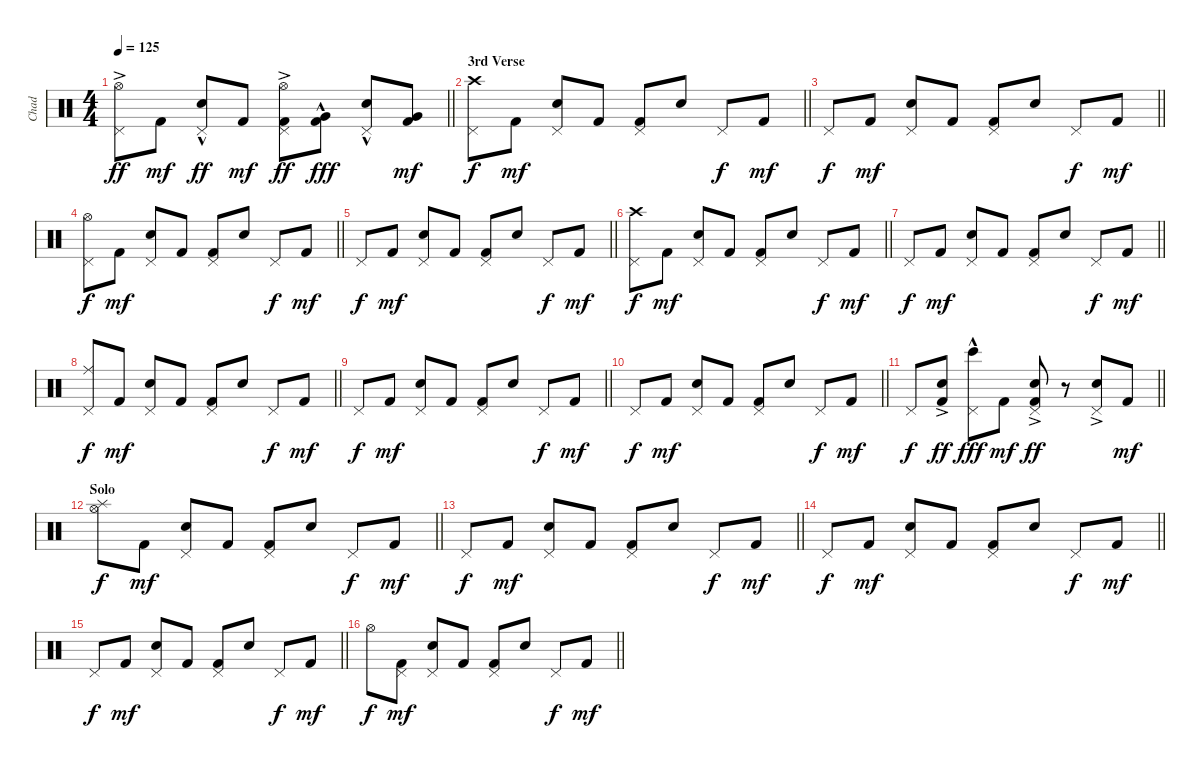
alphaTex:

\track ("Chad" "Chad") {instrument percussion}
\staff {score}
\articulation defaults
\ts (4 4)
\tempo 125
\clef neutral
\barLineRight lightlight
\ks c
("Hi-Hat (open)"{ac} "Pedal Hi-Hat (hit)").8{dy ff} "Kick (hit) 2".8{dy mf} ("Electric Snare (hit)"{hac} "Pedal Hi-Hat (hit)").8{dy ff} "Kick (hit) 2".8{dy mf} ("Kick (hit) 2"{ac} "Hi-Hat (open)"{ac} "Pedal Hi-Hat (hit)").8{dy ff} ("Kick (hit) 2"{hac} "Very Low Tom (hit)").8{dy fff} ("Electric Snare (hit)"{hac} "Pedal Hi-Hat (hit)").8 ("Very Low Tom (hit)" "Kick (hit) 2").8{dy mf} |
\section ("" "3rd Verse")
\barLineRight lightlight
("Crash high (hit)" "Pedal Hi-Hat (hit)").8{dy f} "Kick (hit) 2".8{dy mf} ("Electric Snare (hit)" "Pedal Hi-Hat (hit)").8 "Kick (hit) 2".8 ("Kick (hit) 2" "Pedal Hi-Hat (hit)").8 "Electric Snare (hit)".8 "Pedal Hi-Hat (hit)".8{dy f} "Kick (hit) 2".8{dy mf} |
\barLineRight lightlight "Pedal Hi-Hat (hit)".8{dy f} "Kick (hit) 2".8{dy mf}
("Electric Snare (hit)" "Pedal Hi-Hat (hit)").8 "Kick (hit) 2".8 ("Kick (hit) 2" "Pedal Hi-Hat (hit)").8 "Electric Snare (hit)".8 "Pedal Hi-Hat (hit)".8{dy f} "Kick (hit) 2".8{dy mf} |
\barLineRight lightlight
("Hi-Hat (open)" "Pedal Hi-Hat (hit)").8{dy f} "Kick (hit) 2".8{dy mf} ("Electric Snare (hit)" "Pedal Hi-Hat (hit)").8 "Kick (hit) 2".8 ("Kick (hit) 2" "Pedal Hi-Hat (hit)").8 "Electric Snare (hit)".8 "Pedal Hi-Hat (hit)".8{dy f} "Kick (hit) 2".8{dy mf} |
\barLineRight lightlight "Pedal Hi-Hat (hit)".8{dy f} "Kick (hit) 2".8{dy mf}
("Electric Snare (hit)" "Pedal Hi-Hat (hit)").8 "Kick (hit) 2".8 ("Kick (hit) 2" "Pedal Hi-Hat (hit)").8 "Electric Snare (hit)".8 "Pedal Hi-Hat (hit)".8{dy f} "Kick (hit) 2".8{dy mf} |
\barLineRight lightlight
("Crash high (hit)" "Pedal Hi-Hat (hit)").8{dy f} "Kick (hit) 2".8{dy mf} ("Electric Snare (hit)" "Pedal Hi-Hat (hit)").8 "Kick (hit) 2".8 ("Kick (hit) 2" "Pedal Hi-Hat (hit)").8 "Electric Snare (hit)".8 "Pedal Hi-Hat (hit)".8{dy f} "Kick (hit) 2".8{dy mf} |
\barLineRight lightlight "Pedal Hi-Hat (hit)".8{dy f} "Kick (hit) 2".8{dy mf}
("Electric Snare (hit)" "Pedal Hi-Hat (hit)").8 "Kick (hit) 2".8 ("Kick (hit) 2" "Pedal Hi-Hat (hit)").8 "Electric Snare (hit)".8 "Pedal Hi-Hat (hit)".8{dy f} "Kick (hit) 2".8{dy mf} |
\barLineRight lightlight
("Ride (middle)" "Pedal Hi-Hat (hit)").8{dy f} "Kick (hit) 2".8{dy mf} ("Electric Snare (hit)" "Pedal Hi-Hat (hit)").8 "Kick (hit) 2".8 ("Kick (hit) 2" "Pedal Hi-Hat (hit)").8 "Electric Snare (hit)".8 "Pedal Hi-Hat (hit)".8{dy f} "Kick (hit) 2".8{dy mf} |
\barLineRight lightlight "Pedal Hi-Hat (hit)".8{dy f} "Kick (hit) 2".8{dy mf}
("Electric Snare (hit)" "Pedal Hi-Hat (hit)").8 "Kick (hit) 2".8 ("Kick (hit) 2" "Pedal Hi-Hat (hit)").8 "Electric Snare (hit)".8 "Pedal Hi-Hat (hit)".8{dy f} "Kick (hit) 2".8{dy mf} |
\barLineRight lightlight "Pedal Hi-Hat (hit)".8{dy f} "Kick (hit) 2".8{dy mf}
("Electric Snare (hit)" "Pedal Hi-Hat (hit)").8 "Kick (hit) 2".8 ("Kick (hit) 2" "Pedal Hi-Hat (hit)").8 "Electric Snare (hit)".8 "Pedal Hi-Hat (hit)".8{dy f} "Kick (hit) 2".8{dy mf} |
\barLineRight lightlight "Pedal Hi-Hat (hit)".8{dy f}
("Kick (hit) 2" "Electric Snare (hit)"{ac}).8{dy ff} ("Bongo High (hit)"{hac} "Pedal Hi-Hat (hit)").8{dy fff} "Kick (hit) 2".8{dy mf} ("Kick (hit) 2" "Electric Snare (hit)"{ac} "Pedal Hi-Hat (hit)").8{dy ff} r.8 ("Electric Snare (hit)"{ac} "Pedal Hi-Hat (hit)").8 "Kick (hit) 2".8{dy mf} |
\section ("" "Solo")
\barLineRight lightlight
("Hi-Hat (open)" "Splash (hit)").8{dy f} "Kick (hit) 2".8{dy mf} ("Electric Snare (hit)" "Pedal Hi-Hat (hit)").8 "Kick (hit) 2".8 ("Kick (hit) 2" "Pedal Hi-Hat (hit)").8 "Electric Snare (hit)".8 "Pedal Hi-Hat (hit)".8{dy f} "Kick (hit) 2".8{dy mf} |
\barLineRight lightlight "Pedal Hi-Hat (hit)".8{dy f} "Kick (hit) 2".8{dy mf}
("Electric Snare (hit)" "Pedal Hi-Hat (hit)").8 "Kick (hit) 2".8 ("Kick (hit) 2" "Pedal Hi-Hat (hit)").8 "Electric Snare (hit)".8 "Pedal Hi-Hat (hit)".8{dy f} "Kick (hit) 2".8{dy mf} |
\barLineRight lightlight "Pedal Hi-Hat (hit)".8{dy f} "Kick (hit) 2".8{dy mf}
("Electric Snare (hit)" "Pedal Hi-Hat (hit)").8 "Kick (hit) 2".8 ("Kick (hit) 2" "Pedal Hi-Hat (hit)").8 "Electric Snare (hit)".8 "Pedal Hi-Hat (hit)".8{dy f} "Kick (hit) 2".8{dy mf} |
\barLineRight lightlight "Pedal Hi-Hat (hit)".8{dy f} "Kick (hit) 2".8{dy mf}
("Electric Snare (hit)" "Pedal Hi-Hat (hit)").8 "Kick (hit) 2".8 ("Kick (hit) 2" "Pedal Hi-Hat (hit)").8 "Electric Snare (hit)".8 "Pedal Hi-Hat (hit)".8{dy f} "Kick (hit) 2".8{dy mf} |
\barLineRight lightlight "Hi-Hat (open)".8{dy f}
("Kick (hit) 2" "Pedal Hi-Hat (hit)").8{dy mf} ("Electric Snare (hit)" "Pedal Hi-Hat (hit)").8 "Kick (hit) 2".8 ("Kick (hit) 2" "Pedal Hi-Hat (hit)").8 "Electric Snare (hit)".8 "Pedal Hi-Hat (hit)".8{dy f} "Kick (hit) 2".8{dy mf}
